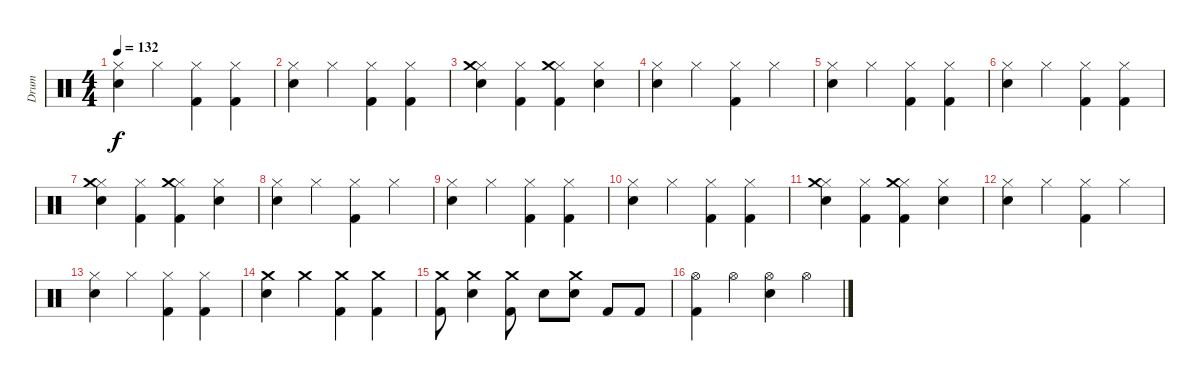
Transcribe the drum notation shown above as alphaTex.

\track ("Drum" "Drum") {instrument percussion}
\staff {score}
\articulation defaults
\ts (4 4)
\tempo 132
\clef neutral
\ks c
("Hi-Hat (closed)" "Snare (hit) 2").4{dy f} "Hi-Hat (closed)".4 ("Hi-Hat (closed)" "Kick (hit) 2").4 ("Hi-Hat (closed)" "Kick (hit) 2").4 |
("Hi-Hat (closed)" "Snare (hit) 2").4 "Hi-Hat (closed)".4 ("Hi-Hat (closed)" "Kick (hit) 2").4 ("Hi-Hat (closed)" "Kick (hit) 2").4 |
("Hi-Hat (closed)" "Snare (hit) 2" "Crash medium (hit)").4 ("Hi-Hat (closed)" "Kick (hit) 2").4 ("Hi-Hat (closed)" "Kick (hit) 2" "Crash medium (hit)").4 ("Hi-Hat (closed)" "Snare (hit) 2").4 |
("Hi-Hat (closed)" "Snare (hit) 2").4 "Hi-Hat (closed)".4 ("Hi-Hat (closed)" "Kick (hit) 2").4 "Hi-Hat (closed)".4 |
("Hi-Hat (closed)" "Snare (hit) 2").4 "Hi-Hat (closed)".4 ("Hi-Hat (closed)" "Kick (hit) 2").4 ("Hi-Hat (closed)" "Kick (hit) 2").4 |
("Hi-Hat (closed)" "Snare (hit) 2").4 "Hi-Hat (closed)".4 ("Hi-Hat (closed)" "Kick (hit) 2").4 ("Hi-Hat (closed)" "Kick (hit) 2").4 |
("Hi-Hat (closed)" "Snare (hit) 2" "Crash medium (hit)").4 ("Hi-Hat (closed)" "Kick (hit) 2").4 ("Hi-Hat (closed)" "Kick (hit) 2" "Crash medium (hit)").4 ("Hi-Hat (closed)" "Snare (hit) 2").4 |
("Hi-Hat (closed)" "Snare (hit) 2").4 "Hi-Hat (closed)".4 ("Hi-Hat (closed)" "Kick (hit) 2").4 "Hi-Hat (closed)".4 |
("Hi-Hat (closed)" "Snare (hit) 2").4 "Hi-Hat (closed)".4 ("Hi-Hat (closed)" "Kick (hit) 2").4 ("Hi-Hat (closed)" "Kick (hit) 2").4 |
("Hi-Hat (closed)" "Snare (hit) 2").4 "Hi-Hat (closed)".4 ("Hi-Hat (closed)" "Kick (hit) 2").4 ("Hi-Hat (closed)" "Kick (hit) 2").4 |
("Hi-Hat (closed)" "Snare (hit) 2" "Crash medium (hit)").4 ("Hi-Hat (closed)" "Kick (hit) 2").4 ("Hi-Hat (closed)" "Kick (hit) 2" "Crash medium (hit)").4 ("Hi-Hat (closed)" "Snare (hit) 2").4 |
("Hi-Hat (closed)" "Snare (hit) 2").4 "Hi-Hat (closed)".4 ("Hi-Hat (closed)" "Kick (hit) 2").4 "Hi-Hat (closed)".4 |
("Hi-Hat (closed)" "Snare (hit) 2").4 "Hi-Hat (closed)".4 ("Hi-Hat (closed)" "Kick (hit) 2").4 ("Hi-Hat (closed)" "Kick (hit) 2").4 |
("Crash medium (hit)" "Snare (hit) 2").4 "Crash medium (hit)".4 ("Crash medium (hit)" "Kick (hit) 2").4 ("Crash medium (hit)" "Kick (hit) 2").4 |
("Crash medium (hit)" "Kick (hit) 2").8 ("Crash medium (hit)" "Snare (hit) 2").4 ("Crash medium (hit)" "Kick (hit) 2").8 "Snare (hit) 2".8 ("Crash medium (hit)" "Snare (hit) 2").8 "Kick (hit) 2".8 "Kick (hit) 2".8 |
("Hi-Hat (open)" "Kick (hit) 2").4 "Hi-Hat (open)".4 ("Hi-Hat (open)" "Snare (hit) 2").4 "Hi-Hat (open)".4
